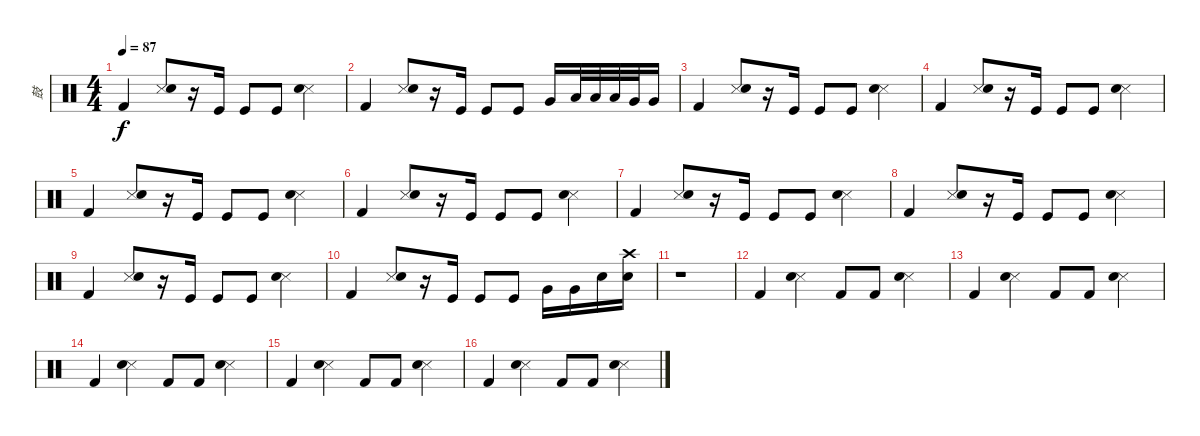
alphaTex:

\track ("鼓" "鼓") {instrument percussion}
\staff {score}
\articulation defaults
\ts (4 4)
\tempo 87
\clef neutral
\ks c "Kick (hit) 2".4{dy f}
("Snare (side stick) 3" "Electric Snare (hit)").8 r.16 "Kick (hit)".16 "Kick (hit)".8 "Kick (hit)".8 ("Snare (side stick) 3" "Electric Snare (hit)").4 |
"Kick (hit) 2".4 ("Snare (side stick) 3" "Electric Snare (hit)").8 r.16 "Kick (hit)".16 "Kick (hit)".8 "Kick (hit)".8 "Very Low Tom (hit)".16 "Low Floor Tom (hit)".32 "Low Tom (hit)".32 "Low Tom (hit)".32 "Very Low Tom (hit)".32 "Very Low Tom (hit)".16 |
"Kick (hit) 2".4 ("Snare (side stick) 3" "Electric Snare (hit)").8 r.16 "Kick (hit)".16 "Kick (hit)".8 "Kick (hit)".8 ("Snare (side stick) 3" "Electric Snare (hit)").4 |
"Kick (hit) 2".4 ("Snare (side stick) 3" "Electric Snare (hit)").8 r.16 "Kick (hit)".16 "Kick (hit)".8 "Kick (hit)".8 ("Snare (side stick) 3" "Electric Snare (hit)").4 |
"Kick (hit) 2".4 ("Snare (side stick) 3" "Electric Snare (hit)").8 r.16 "Kick (hit)".16 "Kick (hit)".8 "Kick (hit)".8 ("Snare (side stick) 3" "Electric Snare (hit)").4 |
"Kick (hit) 2".4 ("Snare (side stick) 3" "Electric Snare (hit)").8 r.16 "Kick (hit)".16 "Kick (hit)".8 "Kick (hit)".8 ("Snare (side stick) 3" "Electric Snare (hit)").4 |
"Kick (hit) 2".4 ("Snare (side stick) 3" "Electric Snare (hit)").8 r.16 "Kick (hit)".16 "Kick (hit)".8 "Kick (hit)".8 ("Snare (side stick) 3" "Electric Snare (hit)").4 |
"Kick (hit) 2".4 ("Snare (side stick) 3" "Electric Snare (hit)").8 r.16 "Kick (hit)".16 "Kick (hit)".8 "Kick (hit)".8 ("Snare (side stick) 3" "Electric Snare (hit)").4 |
"Kick (hit) 2".4 ("Snare (side stick) 3" "Electric Snare (hit)").8 r.16 "Kick (hit)".16 "Kick (hit)".8 "Kick (hit)".8 ("Snare (side stick) 3" "Electric Snare (hit)").4 |
"Kick (hit) 2".4 ("Snare (side stick) 3" "Electric Snare (hit)").8 r.16 "Kick (hit)".16 "Kick (hit)".8 "Kick (hit)".8 "Very Low Tom (hit)".16 "Very Low Tom (hit)".16 "Electric Snare (hit)".16 ("Crash high (hit)" "Electric Snare (hit)").16 |
r.1 |
"Kick (hit) 2".4 ("Snare (side stick) 3" "Electric Snare (hit)").4 "Kick (hit) 2".8 "Kick (hit) 2".8 ("Snare (side stick) 3" "Electric Snare (hit)").4 |
"Kick (hit) 2".4 ("Snare (side stick) 3" "Electric Snare (hit)").4 "Kick (hit) 2".8 "Kick (hit) 2".8 ("Snare (side stick) 3" "Electric Snare (hit)").4 |
"Kick (hit) 2".4 ("Snare (side stick) 3" "Electric Snare (hit)").4 "Kick (hit) 2".8 "Kick (hit) 2".8 ("Snare (side stick) 3" "Electric Snare (hit)").4 |
"Kick (hit) 2".4 ("Snare (side stick) 3" "Electric Snare (hit)").4 "Kick (hit) 2".8 "Kick (hit) 2".8 ("Snare (side stick) 3" "Electric Snare (hit)").4 |
"Kick (hit) 2".4 ("Snare (side stick) 3" "Electric Snare (hit)").4 "Kick (hit) 2".8 "Kick (hit) 2".8 ("Snare (side stick) 3" "Electric Snare (hit)").4
